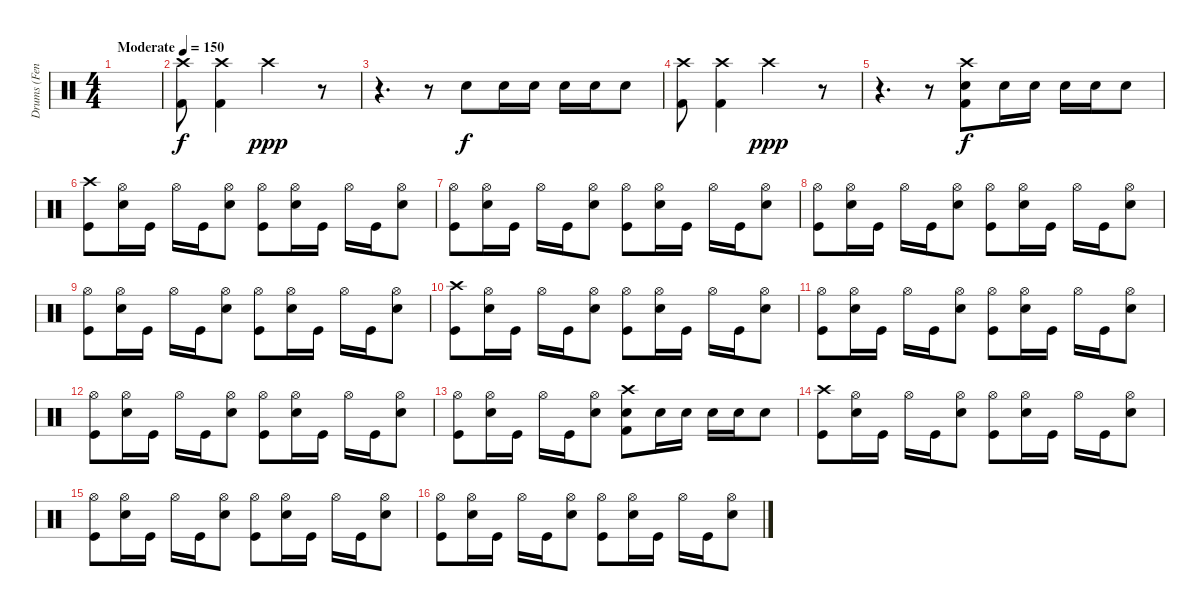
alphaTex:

\track ("Drums (Fenriz)" "Drums (Fen") {instrument percussion}
\staff {score}
\articulation defaults
\ts (4 4)
\tempo (150 "Moderate")
\clef neutral
\ks c
|
("Crash high (hit)" "Kick (hit) 2").8 ("Crash high (hit)" "Kick (hit) 2").4 "Crash high (hit)".2{dy ppp} r.8 |
r.4{d} r.8 "Electric Snare (hit)".8{dy f} "Electric Snare (hit)".16 "Electric Snare (hit)".16 "Electric Snare (hit)".16 "Electric Snare (hit)".16 "Electric Snare (hit)".8 |
("Crash high (hit)" "Kick (hit) 2").8 ("Crash high (hit)" "Kick (hit) 2").4 "Crash high (hit)".2{dy ppp} r.8 |
r.4{d} r.8 ("Crash high (hit)" "Electric Snare (hit)" "Kick (hit) 2").8{dy f} "Electric Snare (hit)".16 "Electric Snare (hit)".16 "Electric Snare (hit)".16 "Electric Snare (hit)".16 "Electric Snare (hit)".8 |
("Crash high (hit)" "Kick (hit)").8 ("Hi-Hat (open)" "Electric Snare (hit)").16 "Kick (hit)".16 "Hi-Hat (open)".16 "Kick (hit)".16 ("Hi-Hat (open)" "Electric Snare (hit)").8 ("Hi-Hat (open)" "Kick (hit)").8 ("Hi-Hat (open)" "Electric Snare (hit)").16 "Kick (hit)".16 "Hi-Hat (open)".16 "Kick (hit)".16 ("Hi-Hat (open)" "Electric Snare (hit)").8 |
("Hi-Hat (open)" "Kick (hit)").8 ("Hi-Hat (open)" "Electric Snare (hit)").16 "Kick (hit)".16 "Hi-Hat (open)".16 "Kick (hit)".16 ("Hi-Hat (open)" "Electric Snare (hit)").8 ("Hi-Hat (open)" "Kick (hit)").8 ("Hi-Hat (open)" "Electric Snare (hit)").16 "Kick (hit)".16 "Hi-Hat (open)".16 "Kick (hit)".16 ("Hi-Hat (open)" "Electric Snare (hit)").8 |
("Hi-Hat (open)" "Kick (hit)").8 ("Hi-Hat (open)" "Electric Snare (hit)").16 "Kick (hit)".16 "Hi-Hat (open)".16 "Kick (hit)".16 ("Hi-Hat (open)" "Electric Snare (hit)").8 ("Hi-Hat (open)" "Kick (hit)").8 ("Hi-Hat (open)" "Electric Snare (hit)").16 "Kick (hit)".16 "Hi-Hat (open)".16 "Kick (hit)".16 ("Hi-Hat (open)" "Electric Snare (hit)").8 |
("Hi-Hat (open)" "Kick (hit)").8 ("Hi-Hat (open)" "Electric Snare (hit)").16 "Kick (hit)".16 "Hi-Hat (open)".16 "Kick (hit)".16 ("Hi-Hat (open)" "Electric Snare (hit)").8 ("Hi-Hat (open)" "Kick (hit)").8 ("Hi-Hat (open)" "Electric Snare (hit)").16 "Kick (hit)".16 "Hi-Hat (open)".16 "Kick (hit)".16 ("Hi-Hat (open)" "Electric Snare (hit)").8 |
("Crash high (hit)" "Kick (hit)").8 ("Hi-Hat (open)" "Electric Snare (hit)").16 "Kick (hit)".16 "Hi-Hat (open)".16 "Kick (hit)".16 ("Hi-Hat (open)" "Electric Snare (hit)").8 ("Hi-Hat (open)" "Kick (hit)").8 ("Hi-Hat (open)" "Electric Snare (hit)").16 "Kick (hit)".16 "Hi-Hat (open)".16 "Kick (hit)".16 ("Hi-Hat (open)" "Electric Snare (hit)").8 |
("Hi-Hat (open)" "Kick (hit)").8 ("Hi-Hat (open)" "Electric Snare (hit)").16 "Kick (hit)".16 "Hi-Hat (open)".16 "Kick (hit)".16 ("Hi-Hat (open)" "Electric Snare (hit)").8 ("Hi-Hat (open)" "Kick (hit)").8 ("Hi-Hat (open)" "Electric Snare (hit)").16 "Kick (hit)".16 "Hi-Hat (open)".16 "Kick (hit)".16 ("Hi-Hat (open)" "Electric Snare (hit)").8 |
("Hi-Hat (open)" "Kick (hit)").8 ("Hi-Hat (open)" "Electric Snare (hit)").16 "Kick (hit)".16 "Hi-Hat (open)".16 "Kick (hit)".16 ("Hi-Hat (open)" "Electric Snare (hit)").8 ("Hi-Hat (open)" "Kick (hit)").8 ("Hi-Hat (open)" "Electric Snare (hit)").16 "Kick (hit)".16 "Hi-Hat (open)".16 "Kick (hit)".16 ("Hi-Hat (open)" "Electric Snare (hit)").8 |
("Hi-Hat (open)" "Kick (hit)").8 ("Hi-Hat (open)" "Electric Snare (hit)").16 "Kick (hit)".16 "Hi-Hat (open)".16 "Kick (hit)".16 ("Hi-Hat (open)" "Electric Snare (hit)").8 ("Crash high (hit)" "Electric Snare (hit)" "Kick (hit) 2").8 "Electric Snare (hit)".16 "Electric Snare (hit)".16 "Electric Snare (hit)".16 "Electric Snare (hit)".16 "Electric Snare (hit)".8 |
("Crash high (hit)" "Kick (hit)").8 ("Hi-Hat (open)" "Electric Snare (hit)").16 "Kick (hit)".16 "Hi-Hat (open)".16 "Kick (hit)".16 ("Hi-Hat (open)" "Electric Snare (hit)").8 ("Hi-Hat (open)" "Kick (hit)").8 ("Hi-Hat (open)" "Electric Snare (hit)").16 "Kick (hit)".16 "Hi-Hat (open)".16 "Kick (hit)".16 ("Hi-Hat (open)" "Electric Snare (hit)").8 |
("Hi-Hat (open)" "Kick (hit)").8 ("Hi-Hat (open)" "Electric Snare (hit)").16 "Kick (hit)".16 "Hi-Hat (open)".16 "Kick (hit)".16 ("Hi-Hat (open)" "Electric Snare (hit)").8 ("Hi-Hat (open)" "Kick (hit)").8 ("Hi-Hat (open)" "Electric Snare (hit)").16 "Kick (hit)".16 "Hi-Hat (open)".16 "Kick (hit)".16 ("Hi-Hat (open)" "Electric Snare (hit)").8 |
("Hi-Hat (open)" "Kick (hit)").8 ("Hi-Hat (open)" "Electric Snare (hit)").16 "Kick (hit)".16 "Hi-Hat (open)".16 "Kick (hit)".16 ("Hi-Hat (open)" "Electric Snare (hit)").8 ("Hi-Hat (open)" "Kick (hit)").8 ("Hi-Hat (open)" "Electric Snare (hit)").16 "Kick (hit)".16 "Hi-Hat (open)".16 "Kick (hit)".16 ("Hi-Hat (open)" "Electric Snare (hit)").8
